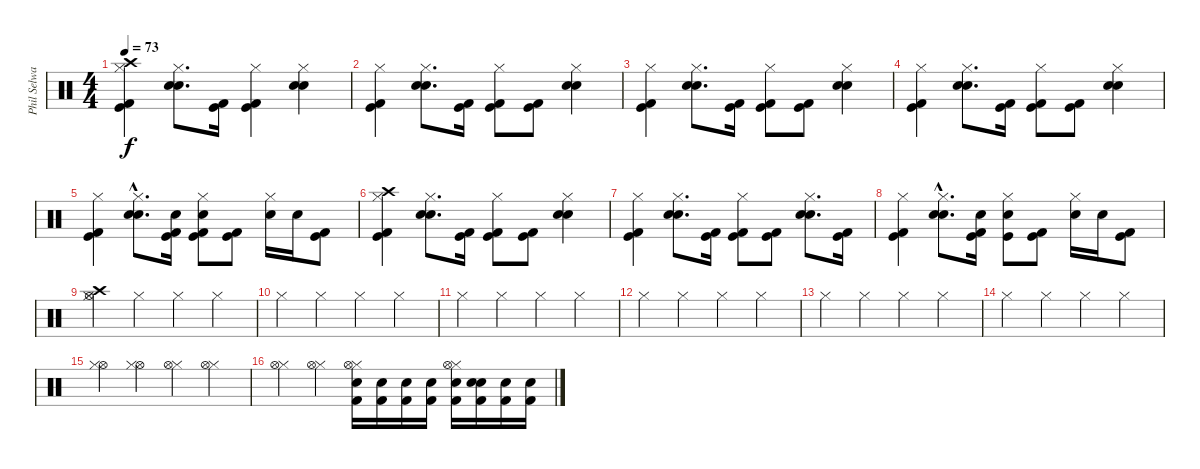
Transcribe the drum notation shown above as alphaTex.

\track ("Phil Selway - Drums" "Phil Selwa") {instrument percussion}
\staff {score}
\articulation defaults
\ts (4 4)
\tempo 73
\clef neutral
\ks c
("Hi-Hat (closed)" "Kick (hit) 2" "Kick (hit)" "Crash high (hit)").4{dy f} ("Hi-Hat (closed)" "Snare (hit) 2" "Electric Snare (hit)").8{d} ("Kick (hit)" "Kick (hit) 2").16 ("Hi-Hat (closed)" "Kick (hit)" "Kick (hit) 2").4 ("Hi-Hat (closed)" "Snare (hit) 2" "Electric Snare (hit)").4 |
("Kick (hit) 2" "Hi-Hat (closed)" "Kick (hit)").4 ("Electric Snare (hit)" "Hi-Hat (closed)" "Snare (hit) 2").8{d} ("Kick (hit)" "Kick (hit) 2").16 ("Kick (hit)" "Kick (hit) 2" "Hi-Hat (closed)").8 ("Kick (hit)" "Kick (hit) 2").8 ("Snare (hit) 2" "Electric Snare (hit)" "Hi-Hat (closed)").4 |
("Hi-Hat (closed)" "Kick (hit) 2" "Kick (hit)").4 ("Hi-Hat (closed)" "Snare (hit) 2" "Electric Snare (hit)").8{d} ("Kick (hit)" "Kick (hit) 2").16 ("Kick (hit)" "Kick (hit) 2" "Hi-Hat (closed)").8 ("Kick (hit)" "Kick (hit) 2").8 ("Snare (hit) 2" "Electric Snare (hit)" "Hi-Hat (closed)").4 |
("Hi-Hat (closed)" "Kick (hit) 2" "Kick (hit)").4 ("Hi-Hat (closed)" "Snare (hit) 2" "Electric Snare (hit)").8{d} ("Kick (hit)" "Kick (hit) 2").16 ("Kick (hit)" "Kick (hit) 2" "Hi-Hat (closed)").8 ("Kick (hit)" "Kick (hit) 2").8 ("Snare (hit) 2" "Electric Snare (hit)" "Hi-Hat (closed)").4 |
("Hi-Hat (closed)" "Kick (hit) 2" "Kick (hit)").4 ("Hi-Hat (closed)" "Snare (hit) 2"{hac} "Electric Snare (hit)").8{d} ("Kick (hit)" "Kick (hit) 2" "Snare (hit) 2").16 ("Snare (hit) 2" "Kick (hit)" "Kick (hit) 2" "Hi-Hat (closed)").8 ("Kick (hit) 2" "Kick (hit)").8 ("Hi-Hat (closed)" "Snare (hit) 2").16 "Snare (hit) 2".16 ("Kick (hit) 2" "Kick (hit)").8 |
("Crash high (hit)" "Hi-Hat (closed)" "Kick (hit) 2" "Kick (hit)").4 ("Hi-Hat (closed)" "Snare (hit) 2" "Electric Snare (hit)").8{d} ("Kick (hit)" "Kick (hit) 2").16 ("Kick (hit)" "Kick (hit) 2" "Hi-Hat (closed)").8 ("Kick (hit)" "Kick (hit) 2").8 ("Snare (hit) 2" "Electric Snare (hit)" "Hi-Hat (closed)").4 |
("Hi-Hat (closed)" "Kick (hit) 2" "Kick (hit)").4 ("Hi-Hat (closed)" "Snare (hit) 2" "Electric Snare (hit)").8{d} ("Kick (hit)" "Kick (hit) 2").16 ("Kick (hit)" "Kick (hit) 2" "Hi-Hat (closed)").8 ("Kick (hit)" "Kick (hit) 2").8 ("Snare (hit) 2" "Electric Snare (hit)" "Hi-Hat (closed)").8{d} ("Kick (hit)" "Kick (hit) 2").16 |
("Hi-Hat (closed)" "Kick (hit) 2" "Kick (hit)").4 ("Hi-Hat (closed)" "Snare (hit) 2"{hac} "Electric Snare (hit)").8{d} ("Kick (hit)" "Kick (hit) 2" "Snare (hit) 2").16 ("Kick (hit)" "Hi-Hat (closed)" "Snare (hit) 2").8 ("Kick (hit) 2" "Kick (hit)").8 ("Hi-Hat (closed)" "Snare (hit) 2").16 "Snare (hit) 2".16 ("Kick (hit) 2" "Kick (hit)").8 |
("Hi-Hat (closed)" "Hi-Hat (open)" "Crash high (hit)").4 "Hi-Hat (closed)".4 "Hi-Hat (closed)".4 "Hi-Hat (closed)".4 |
"Hi-Hat (closed)".4 "Hi-Hat (closed)".4 "Hi-Hat (closed)".4 "Hi-Hat (closed)".4 |
"Hi-Hat (closed)".4 "Hi-Hat (closed)".4 "Hi-Hat (closed)".4 "Hi-Hat (closed)".4 |
"Hi-Hat (closed)".4 "Hi-Hat (closed)".4 "Hi-Hat (closed)".4 "Hi-Hat (closed)".4 |
"Hi-Hat (closed)".4 "Hi-Hat (closed)".4 "Hi-Hat (closed)".4 "Hi-Hat (closed)".4 |
"Hi-Hat (closed)".4 "Hi-Hat (closed)".4 "Hi-Hat (closed)".4 "Hi-Hat (closed)".4 |
("Hi-Hat (open)" "Hi-Hat (closed)").4 ("Hi-Hat (open)" "Hi-Hat (closed)").4 ("Hi-Hat (closed)" "Hi-Hat (open)").4 ("Hi-Hat (closed)" "Hi-Hat (open)").4 |
("Hi-Hat (closed)" "Hi-Hat (open)").4 ("Hi-Hat (closed)" "Hi-Hat (open)").4 ("Snare (hit) 2" "Kick (hit) 2" "Hi-Hat (closed)" "Hi-Hat (open)").16{volume 15} ("Snare (hit) 2" "Kick (hit) 2").16{volume 16} ("Snare (hit) 2" "Kick (hit) 2").16 ("Snare (hit) 2" "Kick (hit) 2").16 ("Snare (hit) 2" "Kick (hit) 2" "Hi-Hat (closed)" "Hi-Hat (open)").16 ("Snare (hit) 2" "Snare (hit) 2" "Kick (hit) 2").16 ("Snare (hit) 2" "Kick (hit) 2").16 ("Snare (hit) 2" "Kick (hit) 2").16
